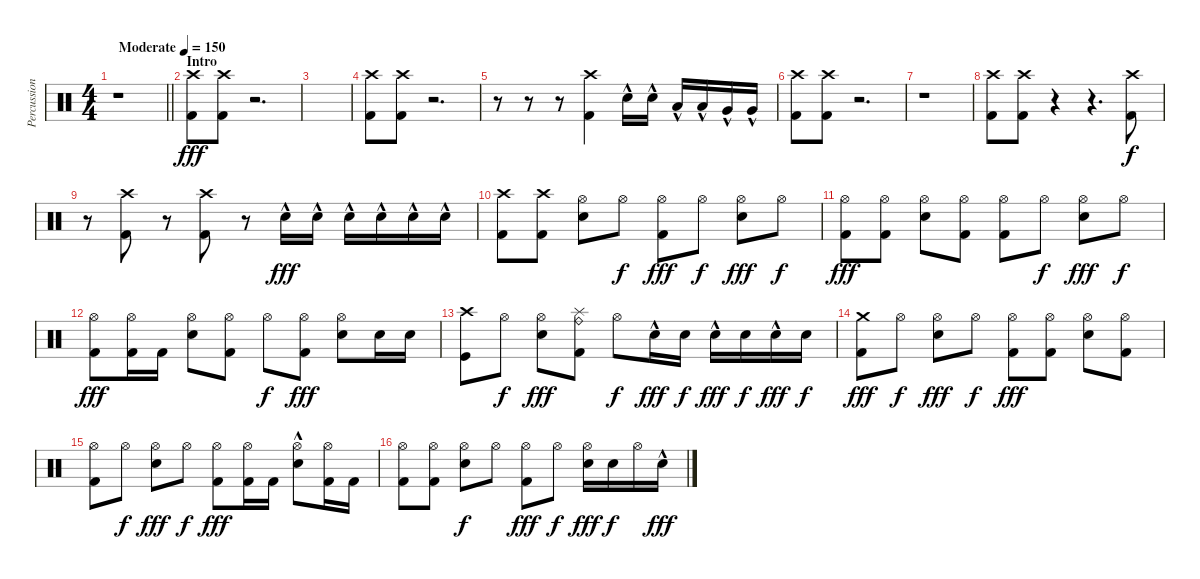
\track ("Percussion" "Percussion") {instrument percussion}
\staff {score}
\articulation defaults
\ts (4 4)
\tempo (150 "Moderate")
\clef neutral
\barLineRight lightlight
\ks c
r.1{dy fff} |
\section ("" "Intro")
("Crash high (hit)" "Kick (hit) 2").8 ("Kick (hit) 2" "Crash high (hit)").8 r.2{d} |
|
("Kick (hit) 2" "Crash high (hit)").8 ("Kick (hit) 2" "Crash high (hit)").8 r.2{d} |
r.8 r.8 r.8 ("Kick (hit) 2" "Crash high (hit)").4 "Electric Snare (hit)"{hac}.16 "Electric Snare (hit)"{hac}.16 "Low Tom (hit)"{hac}.16 "Low Tom (hit)"{hac}.16 "Very Low Tom (hit)"{hac}.16 "Very Low Tom (hit)"{hac}.16 |
("Kick (hit) 2" "Crash high (hit)").8 ("Kick (hit) 2" "Crash high (hit)").8 r.2{d} |
r.1 |
("Kick (hit) 2" "Crash high (hit)").8 ("Kick (hit) 2" "Crash high (hit)").8 r.4 r.4{d} ("Kick (hit) 2" "Crash high (hit)").8{dy f} |
r.8 ("Kick (hit) 2" "Crash high (hit)").8 r.8 ("Kick (hit) 2" "Crash high (hit)").8 r.8 "Electric Snare (hit)"{hac}.16{dy fff} "Electric Snare (hit)"{hac}.16 "Electric Snare (hit)"{hac}.16 "Electric Snare (hit)"{hac}.16 "Electric Snare (hit)"{hac}.16 "Electric Snare (hit)"{hac}.16 |
("Kick (hit) 2" "Crash high (hit)").8 ("Kick (hit) 2" "Crash high (hit)").8 ("Snare (hit) 2" "Hi-Hat (open)").8 "Hi-Hat (open)".8{dy f} ("Kick (hit) 2" "Hi-Hat (open)").8{dy fff} "Hi-Hat (open)".8{dy f} ("Snare (hit) 2" "Hi-Hat (open)").8{dy fff} "Hi-Hat (open)".8{dy f} |
("Kick (hit) 2" "Hi-Hat (open)").8{dy fff} ("Hi-Hat (open)" "Kick (hit) 2").8 ("Hi-Hat (open)" "Snare (hit) 2").8 ("Hi-Hat (open)" "Kick (hit) 2").8 ("Hi-Hat (open)" "Kick (hit) 2").8 "Hi-Hat (open)".8{dy f} ("Snare (hit) 2" "Hi-Hat (open)").8{dy fff} "Hi-Hat (open)".8{dy f} |
("Kick (hit) 2" "Hi-Hat (open)").8{dy fff} ("Kick (hit) 2" "Hi-Hat (open)").16 "Kick (hit) 2".16 ("Hi-Hat (open)" "Snare (hit) 2").8 ("Hi-Hat (open)" "Kick (hit) 2").8 "Hi-Hat (open)".8{dy f} ("Kick (hit) 2" "Hi-Hat (open)").8{dy fff} ("Hi-Hat (open)" "Snare (hit) 2").8 "Snare (hit) 2".16 "Snare (hit) 2".16 |
("Kick (hit)" "Crash high (hit)").8 "Hi-Hat (open)".8{dy f} ("Snare (hit) 2" "Hi-Hat (open)").8{dy fff} ("Splash (hit)" "Kick (hit) 2" "Ride (bell)").8 "Hi-Hat (open)".8{dy f} "Snare (hit) 2"{hac}.16{dy fff} "Snare (hit) 2".16{dy f} "Snare (hit) 2"{hac}.16{dy fff} "Snare (hit) 2".16{dy f} "Snare (hit) 2"{hac}.16{dy fff} "Snare (hit) 2".16{dy f} |
("Kick (hit) 2" "Crash medium (hit)").8{dy fff} "Hi-Hat (open)".8{dy f} ("Snare (hit) 2" "Hi-Hat (open)").8{dy fff} "Hi-Hat (open)".8{dy f} ("Kick (hit) 2" "Hi-Hat (open)").8{dy fff} ("Hi-Hat (open)" "Kick (hit) 2").8 ("Hi-Hat (open)" "Snare (hit) 2").8 ("Hi-Hat (open)" "Kick (hit) 2").8 |
("Kick (hit) 2" "Hi-Hat (open)").8 "Hi-Hat (open)".8{dy f} ("Snare (hit) 2" "Hi-Hat (open)").8{dy fff} "Hi-Hat (open)".8{dy f} ("Hi-Hat (open)" "Kick (hit) 2").8{dy fff} ("Hi-Hat (open)" "Kick (hit) 2").16 "Kick (hit) 2".16 ("Hi-Hat (open)" "Snare (hit) 2"{hac}).8 ("Hi-Hat (open)" "Kick (hit) 2").16 "Kick (hit) 2".16 |
("Hi-Hat (open)" "Kick (hit) 2").8 ("Kick (hit) 2" "Hi-Hat (open)").8 ("Hi-Hat (open)" "Snare (hit) 2").8{dy f} "Hi-Hat (open)".8 ("Kick (hit) 2" "Hi-Hat (open)").8{dy fff} "Hi-Hat (open)".8{dy f} ("Snare (hit) 2" "Hi-Hat (open)").16{dy fff} "Snare (hit) 2".16{dy f} "Hi-Hat (open)".16 "Snare (hit) 2"{hac}.16{dy fff}
